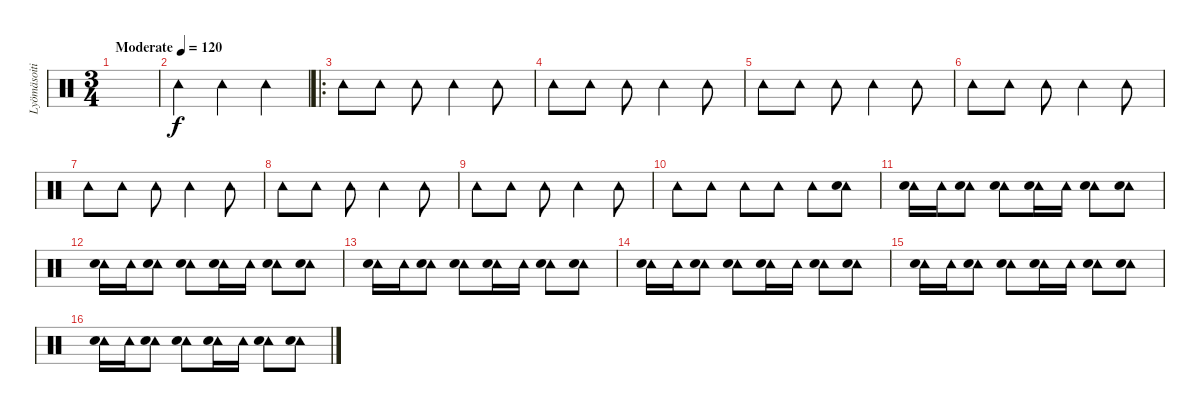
\track ("Lyömäsoitin" "Lyömäsoiti") {solo instrument percussion}
\staff {score}
\articulation defaults
\ts (3 4)
\tempo (120 "Moderate")
\clef neutral
\ks c
|
"Tambourine (hit)".4 "Tambourine (hit)".4 "Tambourine (hit)".4 |
\ro "Tambourine (hit)".8 "Tambourine (hit)".8 "Tambourine (hit)".8 "Tambourine (hit)".4 "Tambourine (hit)".8
|
"Tambourine (hit)".8 "Tambourine (hit)".8 "Tambourine (hit)".8 "Tambourine (hit)".4 "Tambourine (hit)".8 |
"Tambourine (hit)".8 "Tambourine (hit)".8 "Tambourine (hit)".8 "Tambourine (hit)".4 "Tambourine (hit)".8 |
"Tambourine (hit)".8 "Tambourine (hit)".8 "Tambourine (hit)".8 "Tambourine (hit)".4 "Tambourine (hit)".8 |
"Tambourine (hit)".8 "Tambourine (hit)".8 "Tambourine (hit)".8 "Tambourine (hit)".4 "Tambourine (hit)".8 |
"Tambourine (hit)".8 "Tambourine (hit)".8 "Tambourine (hit)".8 "Tambourine (hit)".4 "Tambourine (hit)".8 |
"Tambourine (hit)".8 "Tambourine (hit)".8 "Tambourine (hit)".8 "Tambourine (hit)".4 "Tambourine (hit)".8 |
"Tambourine (hit)".8 "Tambourine (hit)".8 "Tambourine (hit)".8 "Tambourine (hit)".8 "Tambourine (hit)".8 ("Tambourine (hit)" "Hand Clap (hit)").8 |
("Tambourine (hit)" "Hand Clap (hit)").16 "Tambourine (hit)".16 ("Tambourine (hit)" "Hand Clap (hit)").8 ("Tambourine (hit)" "Hand Clap (hit)").8 ("Tambourine (hit)" "Hand Clap (hit)").16 "Tambourine (hit)".16 ("Tambourine (hit)" "Hand Clap (hit)").8 ("Tambourine (hit)" "Hand Clap (hit)").8 |
("Tambourine (hit)" "Hand Clap (hit)").16 "Tambourine (hit)".16 ("Tambourine (hit)" "Hand Clap (hit)").8 ("Tambourine (hit)" "Hand Clap (hit)").8 ("Tambourine (hit)" "Hand Clap (hit)").16 "Tambourine (hit)".16 ("Tambourine (hit)" "Hand Clap (hit)").8 ("Tambourine (hit)" "Hand Clap (hit)").8 |
("Tambourine (hit)" "Hand Clap (hit)").16 "Tambourine (hit)".16 ("Tambourine (hit)" "Hand Clap (hit)").8 ("Tambourine (hit)" "Hand Clap (hit)").8 ("Tambourine (hit)" "Hand Clap (hit)").16 "Tambourine (hit)".16 ("Tambourine (hit)" "Hand Clap (hit)").8 ("Tambourine (hit)" "Hand Clap (hit)").8 |
("Tambourine (hit)" "Hand Clap (hit)").16 "Tambourine (hit)".16 ("Tambourine (hit)" "Hand Clap (hit)").8 ("Tambourine (hit)" "Hand Clap (hit)").8 ("Tambourine (hit)" "Hand Clap (hit)").16 "Tambourine (hit)".16 ("Tambourine (hit)" "Hand Clap (hit)").8 ("Tambourine (hit)" "Hand Clap (hit)").8 |
("Tambourine (hit)" "Hand Clap (hit)").16 "Tambourine (hit)".16 ("Tambourine (hit)" "Hand Clap (hit)").8 ("Tambourine (hit)" "Hand Clap (hit)").8 ("Tambourine (hit)" "Hand Clap (hit)").16 "Tambourine (hit)".16 ("Tambourine (hit)" "Hand Clap (hit)").8 ("Tambourine (hit)" "Hand Clap (hit)").8 |
("Tambourine (hit)" "Hand Clap (hit)").16 "Tambourine (hit)".16 ("Tambourine (hit)" "Hand Clap (hit)").8 ("Tambourine (hit)" "Hand Clap (hit)").8 ("Tambourine (hit)" "Hand Clap (hit)").16 "Tambourine (hit)".16 ("Tambourine (hit)" "Hand Clap (hit)").8 ("Tambourine (hit)" "Hand Clap (hit)").8
